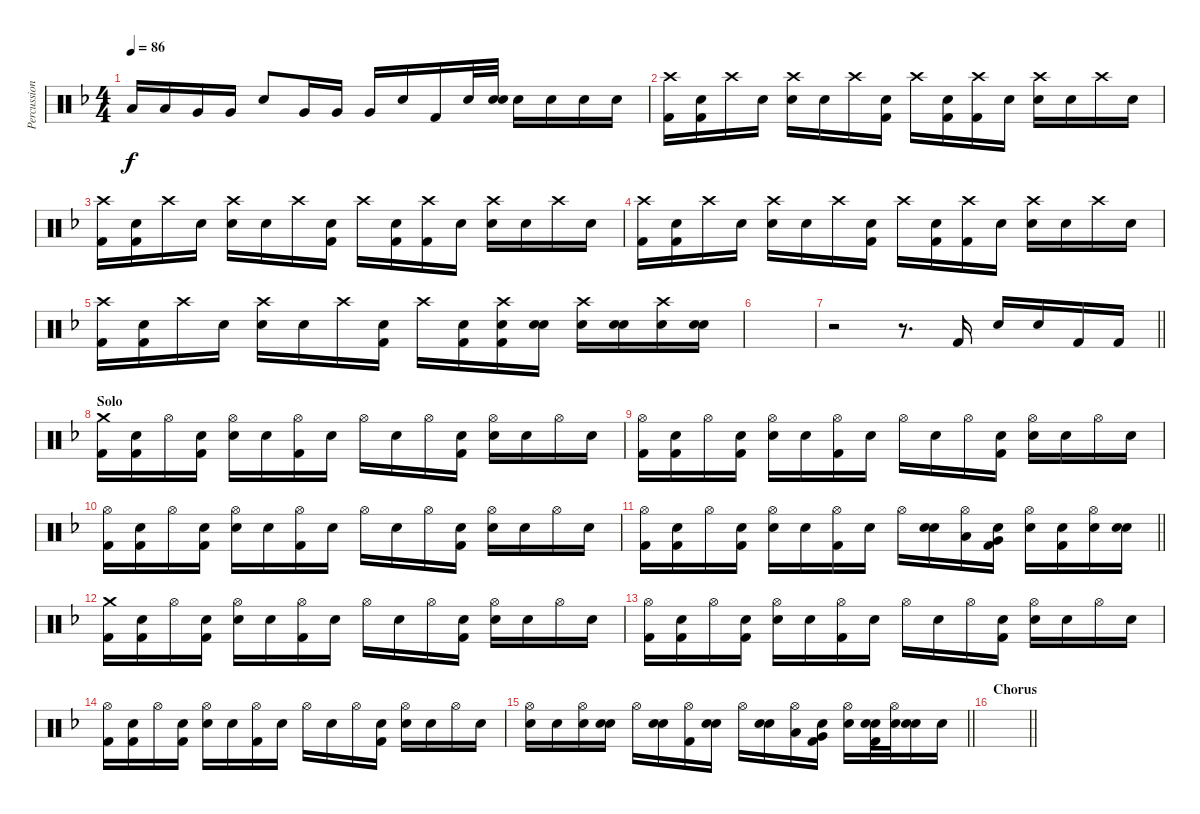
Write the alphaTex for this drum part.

\track ("Percussion" "Percussion") {instrument percussion}
\staff {score}
\articulation defaults
\ts (4 4)
\tempo 86
\clef neutral
\ks f "Low Tom (hit)".16{dy f} "Low Tom (hit)".16 "Very Low Tom (hit)".16 "Very Low Tom (hit)".16 "Electric Snare (hit)".8 "Very Low Tom (hit)".16 "Very Low Tom (hit)".16 "Very Low Tom (hit)".16 "Electric Snare (hit)".16 "Kick (hit) 2".16 "Electric Snare (hit)".32
("Electric Snare (hit)" "Electric Snare (hit)").32 "Electric Snare (hit)".16 "Electric Snare (hit)".16 "Electric Snare (hit)".16 "Electric Snare (hit)".16 |
("Crash high (hit)" "Kick (hit) 2").16 ("Snare (hit)" "Kick (hit) 2").16 "Crash high (hit)".16 "Snare (hit)".16 ("Crash high (hit)" "Electric Snare (hit)").16 "Snare (hit)".16 "Crash high (hit)".16 ("Snare (hit)" "Kick (hit) 2").16 "Crash high (hit)".16 ("Snare (hit)" "Kick (hit) 2").16 ("Crash high (hit)" "Kick (hit) 2").16 "Snare (hit)".16 ("Crash high (hit)" "Electric Snare (hit)").16 "Snare (hit)".16 "Crash high (hit)".16 "Snare (hit)".16 |
("Crash high (hit)" "Kick (hit) 2").16 ("Snare (hit)" "Kick (hit) 2").16 "Crash high (hit)".16 "Snare (hit)".16 ("Crash high (hit)" "Electric Snare (hit)").16 "Snare (hit)".16 "Crash high (hit)".16 ("Snare (hit)" "Kick (hit) 2").16 "Crash high (hit)".16 ("Snare (hit)" "Kick (hit) 2").16 ("Crash high (hit)" "Kick (hit) 2").16 "Snare (hit)".16 ("Crash high (hit)" "Electric Snare (hit)").16 "Snare (hit)".16 "Crash high (hit)".16 "Snare (hit)".16 |
("Crash high (hit)" "Kick (hit) 2").16 ("Snare (hit)" "Kick (hit) 2").16 "Crash high (hit)".16 "Snare (hit)".16 ("Crash high (hit)" "Electric Snare (hit)").16 "Snare (hit)".16 "Crash high (hit)".16 ("Snare (hit)" "Kick (hit) 2").16 "Crash high (hit)".16 ("Snare (hit)" "Kick (hit) 2").16 ("Crash high (hit)" "Kick (hit) 2").16 "Snare (hit)".16 ("Crash high (hit)" "Electric Snare (hit)").16 "Snare (hit)".16 "Crash high (hit)".16 "Snare (hit)".16 |
("Crash high (hit)" "Kick (hit) 2").16 ("Snare (hit)" "Kick (hit) 2").16 "Crash high (hit)".16 "Snare (hit)".16 ("Crash high (hit)" "Electric Snare (hit)").16 "Snare (hit)".16 "Crash high (hit)".16 ("Snare (hit)" "Kick (hit) 2").16 "Crash high (hit)".16 ("Snare (hit)" "Kick (hit) 2").16 ("Crash high (hit)" "Electric Snare (hit)" "Kick (hit) 2").16 ("Snare (hit)" "Electric Snare (hit)").16 ("Crash high (hit)" "Electric Snare (hit)").16 ("Snare (hit)" "Electric Snare (hit)").16 ("Crash high (hit)" "Electric Snare (hit)").16 ("Snare (hit)" "Electric Snare (hit)").16 |
|
\barLineRight lightlight
r.2 r.8{d} "Kick (hit) 2".16 "Electric Snare (hit)".16 "Electric Snare (hit)".16 "Kick (hit) 2".16 "Kick (hit) 2".16 |
\section ("" "Solo")
("Crash medium (hit)" "Kick (hit) 2").16 ("Snare (hit)" "Kick (hit) 2").16 "Hi-Hat (open)".16 ("Snare (hit)" "Kick (hit) 2").16 ("Hi-Hat (open)" "Electric Snare (hit)").16 "Snare (hit)".16 ("Hi-Hat (open)" "Kick (hit) 2").16 "Snare (hit)".16 "Hi-Hat (open)".16 "Snare (hit)".16 "Hi-Hat (open)".16 ("Snare (hit)" "Kick (hit) 2").16 ("Hi-Hat (open)" "Electric Snare (hit)").16 "Snare (hit)".16 "Hi-Hat (open)".16 "Snare (hit)".16 |
("Hi-Hat (open)" "Kick (hit) 2").16 ("Snare (hit)" "Kick (hit) 2").16 "Hi-Hat (open)".16 ("Snare (hit)" "Kick (hit) 2").16 ("Hi-Hat (open)" "Electric Snare (hit)").16 "Snare (hit)".16 ("Hi-Hat (open)" "Kick (hit) 2").16 "Snare (hit)".16 "Hi-Hat (open)".16 "Snare (hit)".16 "Hi-Hat (open)".16 ("Snare (hit)" "Kick (hit) 2").16 ("Hi-Hat (open)" "Electric Snare (hit)").16 "Snare (hit)".16 "Hi-Hat (open)".16 "Snare (hit)".16 |
("Hi-Hat (open)" "Kick (hit) 2").16 ("Snare (hit)" "Kick (hit) 2").16 "Hi-Hat (open)".16 ("Snare (hit)" "Kick (hit) 2").16 ("Hi-Hat (open)" "Electric Snare (hit)").16 "Snare (hit)".16 ("Hi-Hat (open)" "Kick (hit) 2").16 "Snare (hit)".16 "Hi-Hat (open)".16 "Snare (hit)".16 "Hi-Hat (open)".16 ("Snare (hit)" "Kick (hit) 2").16 ("Hi-Hat (open)" "Electric Snare (hit)").16 "Snare (hit)".16 "Hi-Hat (open)".16 "Snare (hit)".16 |
\barLineRight lightlight
("Hi-Hat (open)" "Kick (hit) 2").16 ("Snare (hit)" "Kick (hit) 2").16 "Hi-Hat (open)".16 ("Snare (hit)" "Kick (hit) 2").16 ("Hi-Hat (open)" "Electric Snare (hit)").16 "Snare (hit)".16 ("Hi-Hat (open)" "Kick (hit) 2").16 "Snare (hit)".16 "Hi-Hat (open)".16 ("Snare (hit)" "Electric Snare (hit)").16 ("Hi-Hat (open)" "Low Tom (hit)").16 ("Snare (hit)" "Very Low Tom (hit)" "Kick (hit) 2").16 ("Hi-Hat (open)" "Electric Snare (hit)").16 ("Snare (hit)" "Kick (hit) 2").16 ("Hi-Hat (open)" "Electric Snare (hit)").16 ("Snare (hit)" "Electric Snare (hit)").16 |
("Crash medium (hit)" "Kick (hit) 2").16 ("Snare (hit)" "Kick (hit) 2").16 "Hi-Hat (open)".16 ("Snare (hit)" "Kick (hit) 2").16 ("Hi-Hat (open)" "Electric Snare (hit)").16 "Snare (hit)".16 ("Hi-Hat (open)" "Kick (hit) 2").16 "Snare (hit)".16 "Hi-Hat (open)".16 "Snare (hit)".16 "Hi-Hat (open)".16 ("Snare (hit)" "Kick (hit) 2").16 ("Hi-Hat (open)" "Electric Snare (hit)").16 "Snare (hit)".16 "Hi-Hat (open)".16 "Snare (hit)".16 |
("Hi-Hat (open)" "Kick (hit) 2").16 ("Snare (hit)" "Kick (hit) 2").16 "Hi-Hat (open)".16 ("Snare (hit)" "Kick (hit) 2").16 ("Hi-Hat (open)" "Electric Snare (hit)").16 "Snare (hit)".16 ("Hi-Hat (open)" "Kick (hit) 2").16 "Snare (hit)".16 "Hi-Hat (open)".16 "Snare (hit)".16 "Hi-Hat (open)".16 ("Snare (hit)" "Kick (hit) 2").16 ("Hi-Hat (open)" "Electric Snare (hit)").16 "Snare (hit)".16 "Hi-Hat (open)".16 "Snare (hit)".16 |
("Hi-Hat (open)" "Kick (hit) 2").16 ("Snare (hit)" "Kick (hit) 2").16 "Hi-Hat (open)".16 ("Snare (hit)" "Kick (hit) 2").16 ("Hi-Hat (open)" "Electric Snare (hit)").16 "Snare (hit)".16 ("Hi-Hat (open)" "Kick (hit) 2").16 "Snare (hit)".16 "Hi-Hat (open)".16 "Snare (hit)".16 "Hi-Hat (open)".16 ("Snare (hit)" "Kick (hit) 2").16 ("Hi-Hat (open)" "Electric Snare (hit)").16 "Snare (hit)".16 "Hi-Hat (open)".16 "Snare (hit)".16 |
\barLineRight lightlight
("Hi-Hat (open)" "Electric Snare (hit)").16 "Snare (hit)".16 ("Hi-Hat (open)" "Electric Snare (hit)").16 ("Snare (hit)" "Electric Snare (hit)").16 "Hi-Hat (open)".16 ("Snare (hit)" "Electric Snare (hit)").16 ("Hi-Hat (open)" "Kick (hit) 2").16 ("Snare (hit)" "Electric Snare (hit)").16 "Hi-Hat (open)".16 ("Snare (hit)" "Electric Snare (hit)").16 ("Hi-Hat (open)" "Low Tom (hit)").16 ("Snare (hit)" "Very Low Tom (hit)" "Kick (hit) 2").16 ("Hi-Hat (open)" "Electric Snare (hit)").16 ("Snare (hit)" "Electric Snare (hit)" "Kick (hit) 2").32 ("Hi-Hat (open)" "Electric Snare (hit)").32 ("Snare (hit)" "Electric Snare (hit)").16 "Electric Snare (hit)".16 |
\section ("" "Chorus")
\barLineRight lightlight
